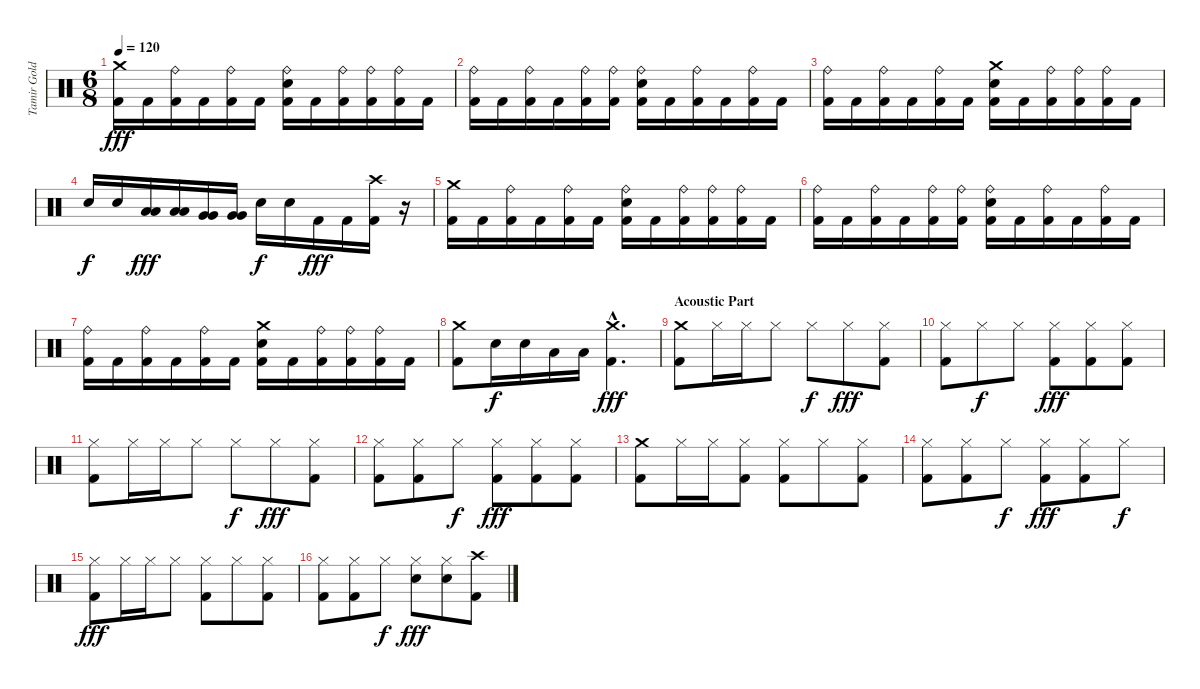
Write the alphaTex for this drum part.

\track ("Tamir Goldberg" "Tamir Gold") {instrument percussion}
\staff {score}
\articulation defaults
\ts (6 8)
\tempo 120
\clef neutral
\ks c
("Crash medium (hit)" "Kick (hit) 2").16{dy fff} "Kick (hit) 2".16 ("Ride (bell)" "Kick (hit) 2").16 "Kick (hit) 2".16 ("Ride (bell)" "Kick (hit) 2").16 "Kick (hit) 2".16 ("Ride (bell)" "Electric Snare (hit)" "Kick (hit) 2").16 "Kick (hit) 2".16 ("Ride (bell)" "Kick (hit) 2").16 ("Ride (bell)" "Kick (hit) 2").16 ("Ride (bell)" "Kick (hit) 2").16 "Kick (hit) 2".16 |
("Ride (bell)" "Kick (hit) 2").16 "Kick (hit) 2".16 ("Ride (bell)" "Kick (hit) 2").16 "Kick (hit) 2".16 ("Ride (bell)" "Kick (hit) 2").16 ("Ride (bell)" "Kick (hit) 2").16 ("Ride (bell)" "Electric Snare (hit)" "Kick (hit) 2").16 "Kick (hit) 2".16 ("Ride (bell)" "Kick (hit) 2").16 "Kick (hit) 2".16 ("Ride (bell)" "Kick (hit) 2").16 "Kick (hit) 2".16 |
("Ride (bell)" "Kick (hit) 2").16 "Kick (hit) 2".16 ("Ride (bell)" "Kick (hit) 2").16 "Kick (hit) 2".16 ("Ride (bell)" "Kick (hit) 2").16 "Kick (hit) 2".16 ("Crash medium (hit)" "Electric Snare (hit)" "Kick (hit) 2").16 "Kick (hit) 2".16 ("Ride (bell)" "Kick (hit) 2").16 ("Ride (bell)" "Kick (hit) 2").16 ("Ride (bell)" "Kick (hit) 2").16 "Kick (hit) 2".16 |
"Electric Snare (hit)".16{dy f} "Electric Snare (hit)".16 ("Low Tom (hit)" "Low Tom (hit)").16{dy fff} ("Low Tom (hit)" "Low Tom (hit)").16 ("Very Low Tom (hit)" "Very Low Tom (hit)").16 ("Very Low Tom (hit)" "Very Low Tom (hit)").16 "Electric Snare (hit)".16{dy f} "Electric Snare (hit)".16 "Kick (hit) 2".16{dy fff} "Kick (hit) 2".16 ("Crash high (hit)" "Kick (hit) 2").16 r.16 |
("Crash medium (hit)" "Kick (hit) 2").16 "Kick (hit) 2".16 ("Ride (bell)" "Kick (hit) 2").16 "Kick (hit) 2".16 ("Ride (bell)" "Kick (hit) 2").16 "Kick (hit) 2".16 ("Ride (bell)" "Electric Snare (hit)" "Kick (hit) 2").16 "Kick (hit) 2".16 ("Ride (bell)" "Kick (hit) 2").16 ("Ride (bell)" "Kick (hit) 2").16 ("Ride (bell)" "Kick (hit) 2").16 "Kick (hit) 2".16 |
("Ride (bell)" "Kick (hit) 2").16 "Kick (hit) 2".16 ("Ride (bell)" "Kick (hit) 2").16 "Kick (hit) 2".16 ("Ride (bell)" "Kick (hit) 2").16 ("Ride (bell)" "Kick (hit) 2").16 ("Ride (bell)" "Electric Snare (hit)" "Kick (hit) 2").16 "Kick (hit) 2".16 ("Ride (bell)" "Kick (hit) 2").16 "Kick (hit) 2".16 ("Ride (bell)" "Kick (hit) 2").16 "Kick (hit) 2".16 |
("Ride (bell)" "Kick (hit) 2").16 "Kick (hit) 2".16 ("Ride (bell)" "Kick (hit) 2").16 "Kick (hit) 2".16 ("Ride (bell)" "Kick (hit) 2").16 "Kick (hit) 2".16 ("Crash medium (hit)" "Electric Snare (hit)" "Kick (hit) 2").16 "Kick (hit) 2".16 ("Ride (bell)" "Kick (hit) 2").16 ("Ride (bell)" "Kick (hit) 2").16 ("Ride (bell)" "Kick (hit) 2").16 "Kick (hit) 2".16 |
("Crash medium (hit)" "Kick (hit) 2").8 "Electric Snare (hit)".16{dy f} "Electric Snare (hit)".16 "Low Tom (hit)".16 "Low Tom (hit)".16 ("Crash medium (hit)"{hac} "Kick (hit) 2"{hac}).4{d dy fff} |
\section ("" "Acoustic Part ")
("Crash medium (hit)" "Kick (hit) 2").8 "Hi-Hat (closed)".16 "Hi-Hat (closed)".16 "Hi-Hat (closed)".8 "Hi-Hat (closed)".8{dy f} "Hi-Hat (closed)".8{dy fff} ("Hi-Hat (closed)" "Kick (hit) 2").8 |
("Hi-Hat (closed)" "Kick (hit) 2").8 "Hi-Hat (closed)".8{dy f} "Hi-Hat (closed)".8 ("Hi-Hat (closed)" "Kick (hit) 2").8{dy fff} ("Hi-Hat (closed)" "Kick (hit) 2").8 ("Hi-Hat (closed)" "Kick (hit) 2").8 |
("Hi-Hat (closed)" "Kick (hit) 2").8 "Hi-Hat (closed)".16 "Hi-Hat (closed)".16 "Hi-Hat (closed)".8 "Hi-Hat (closed)".8{dy f} "Hi-Hat (closed)".8{dy fff} ("Hi-Hat (closed)" "Kick (hit) 2").8 |
("Hi-Hat (closed)" "Kick (hit) 2").8 ("Hi-Hat (closed)" "Kick (hit) 2").8 "Hi-Hat (closed)".8{dy f} ("Hi-Hat (closed)" "Kick (hit) 2").8{dy fff} ("Hi-Hat (closed)" "Kick (hit) 2").8 ("Hi-Hat (closed)" "Kick (hit) 2").8 |
("Crash medium (hit)" "Kick (hit) 2").8 "Hi-Hat (closed)".16 "Hi-Hat (closed)".16 ("Hi-Hat (closed)" "Kick (hit) 2").8 ("Hi-Hat (closed)" "Kick (hit) 2").8 "Hi-Hat (closed)".8 ("Hi-Hat (closed)" "Kick (hit) 2").8 |
("Hi-Hat (closed)" "Kick (hit) 2").8 ("Hi-Hat (closed)" "Kick (hit) 2").8 "Hi-Hat (closed)".8{dy f} ("Hi-Hat (closed)" "Kick (hit) 2").8{dy fff} ("Hi-Hat (closed)" "Kick (hit) 2").8 "Hi-Hat (closed)".8{dy f} |
("Hi-Hat (closed)" "Kick (hit) 2").8{dy fff} "Hi-Hat (closed)".16 "Hi-Hat (closed)".16 "Hi-Hat (closed)".8 ("Hi-Hat (closed)" "Kick (hit) 2").8 "Hi-Hat (closed)".8 ("Hi-Hat (closed)" "Kick (hit) 2").8 |
("Hi-Hat (closed)" "Kick (hit) 2").8 ("Hi-Hat (closed)" "Kick (hit) 2").8 "Hi-Hat (closed)".8{dy f} ("Hi-Hat (closed)" "Electric Snare (hit)").8{dy fff} ("Hi-Hat (closed)" "Electric Snare (hit)").8 ("Crash high (hit)" "Kick (hit) 2").8
